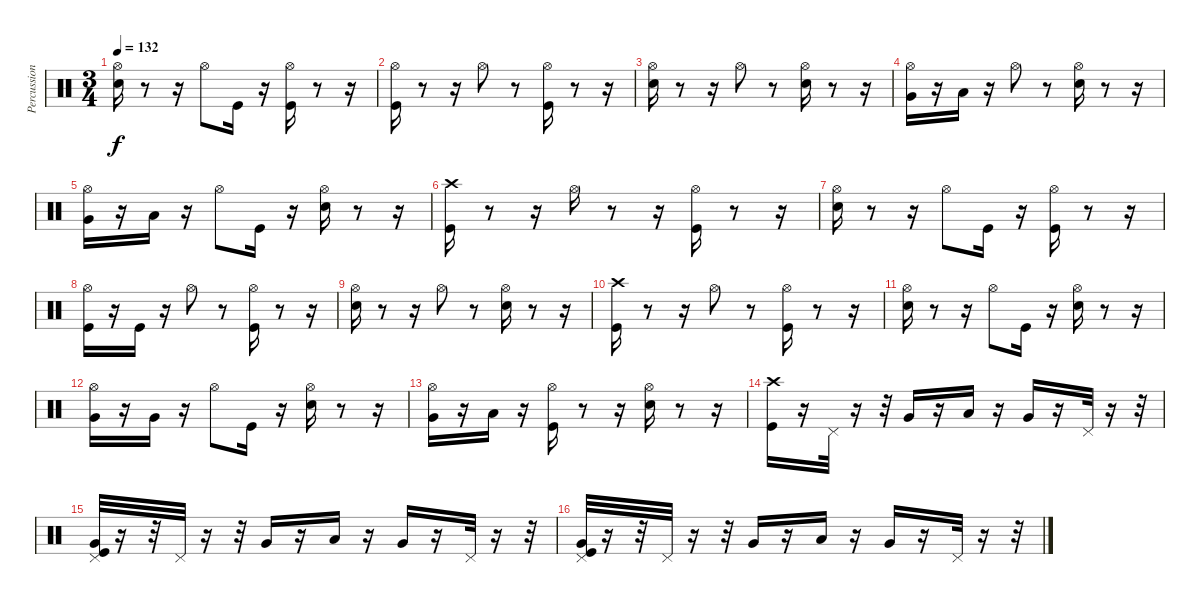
\track ("Percussion" "Percussion") {instrument percussion}
\staff {score}
\articulation defaults
\ts (3 4)
\tempo 132
\clef neutral
\ks c
("Hi-Hat (open)" "Snare (hit) 2").16{dy f} r.8 r.16 "Hi-Hat (open)".8 "Kick (hit)".16 r.16 ("Hi-Hat (open)" "Kick (hit)").16 r.8 r.16 |
("Hi-Hat (open)" "Kick (hit)").16 r.8 r.16 "Hi-Hat (open)".8 r.8 ("Kick (hit)" "Hi-Hat (open)").16 r.8 r.16 |
("Hi-Hat (open)" "Snare (hit) 2").16 r.8 r.16 "Hi-Hat (open)".8 r.8 ("Snare (hit) 2" "Hi-Hat (open)").16 r.8 r.16 |
("Hi-Hat (open)" "Very Low Tom (hit)").16 r.16 "Low Floor Tom (hit)".16 r.16 "Hi-Hat (open)".8 r.8 ("Hi-Hat (open)" "Snare (hit) 2").16 r.8 r.16 |
("Hi-Hat (open)" "Very Low Tom (hit)").16 r.16 "Low Floor Tom (hit)".16 r.16 "Hi-Hat (open)".8 "Kick (hit)".16 r.16 ("Hi-Hat (open)" "Snare (hit) 2").16 r.8 r.16 |
("Kick (hit)" "Crash high (hit)").16 r.8 r.16 "Hi-Hat (open)".16 r.8 r.16 ("Hi-Hat (open)" "Kick (hit)").16 r.8 r.16 |
("Snare (hit) 2" "Hi-Hat (open)").16 r.8 r.16 "Hi-Hat (open)".8 "Kick (hit)".16 r.16 ("Hi-Hat (open)" "Kick (hit)").16 r.8 r.16 |
("Kick (hit)" "Hi-Hat (open)").16 r.16 "Kick (hit)".16 r.16 "Hi-Hat (open)".8 r.8 ("Hi-Hat (open)" "Kick (hit)").16 r.8 r.16 |
("Hi-Hat (open)" "Snare (hit) 2").16 r.8 r.16 "Hi-Hat (open)".8 r.8 ("Hi-Hat (open)" "Snare (hit) 2").16 r.8 r.16 |
("Kick (hit)" "Crash high (hit)").16 r.8 r.16 "Hi-Hat (open)".8 r.8 ("Kick (hit)" "Hi-Hat (open)").16 r.8 r.16 |
("Hi-Hat (open)" "Snare (hit) 2").16 r.8 r.16 "Hi-Hat (open)".8 "Kick (hit)".16 r.16 ("Hi-Hat (open)" "Snare (hit) 2").16 r.8 r.16 |
("Hi-Hat (open)" "Very Low Tom (hit)").16 r.16 "Very Low Tom (hit)".16 r.16 "Hi-Hat (open)".8 "Kick (hit)".16 r.16 ("Hi-Hat (open)" "Snare (hit) 2").16 r.8 r.16 |
("Hi-Hat (open)" "Very Low Tom (hit)").16 r.16 "Low Floor Tom (hit)".16 r.16 ("Hi-Hat (open)" "Kick (hit)").16 r.8 r.16 ("Hi-Hat (open)" "Snare (hit) 2").16 r.8 r.16 |
("Crash high (hit)" "Kick (hit)").16 r.16 "Pedal Hi-Hat (hit)".32 r.16 r.32 "Very Low Tom (hit)".16 r.16 "Low Tom (hit)".16 r.16 "Very Low Tom (hit)".16 r.16 "Pedal Hi-Hat (hit)".32 r.16 r.32 |
("Kick (hit)" "Pedal Hi-Hat (hit)" "Very Low Tom (hit)").32 r.16 r.32 "Pedal Hi-Hat (hit)".32 r.16 r.32 "Very Low Tom (hit)".16 r.16 "Low Tom (hit)".16 r.16 "Very Low Tom (hit)".16 r.16 "Pedal Hi-Hat (hit)".32 r.16 r.32 |
("Kick (hit)" "Pedal Hi-Hat (hit)" "Very Low Tom (hit)").32 r.16 r.32 "Pedal Hi-Hat (hit)".32 r.16 r.32 "Very Low Tom (hit)".16 r.16 "Low Tom (hit)".16 r.16 "Very Low Tom (hit)".16 r.16 "Pedal Hi-Hat (hit)".32 r.16 r.32
